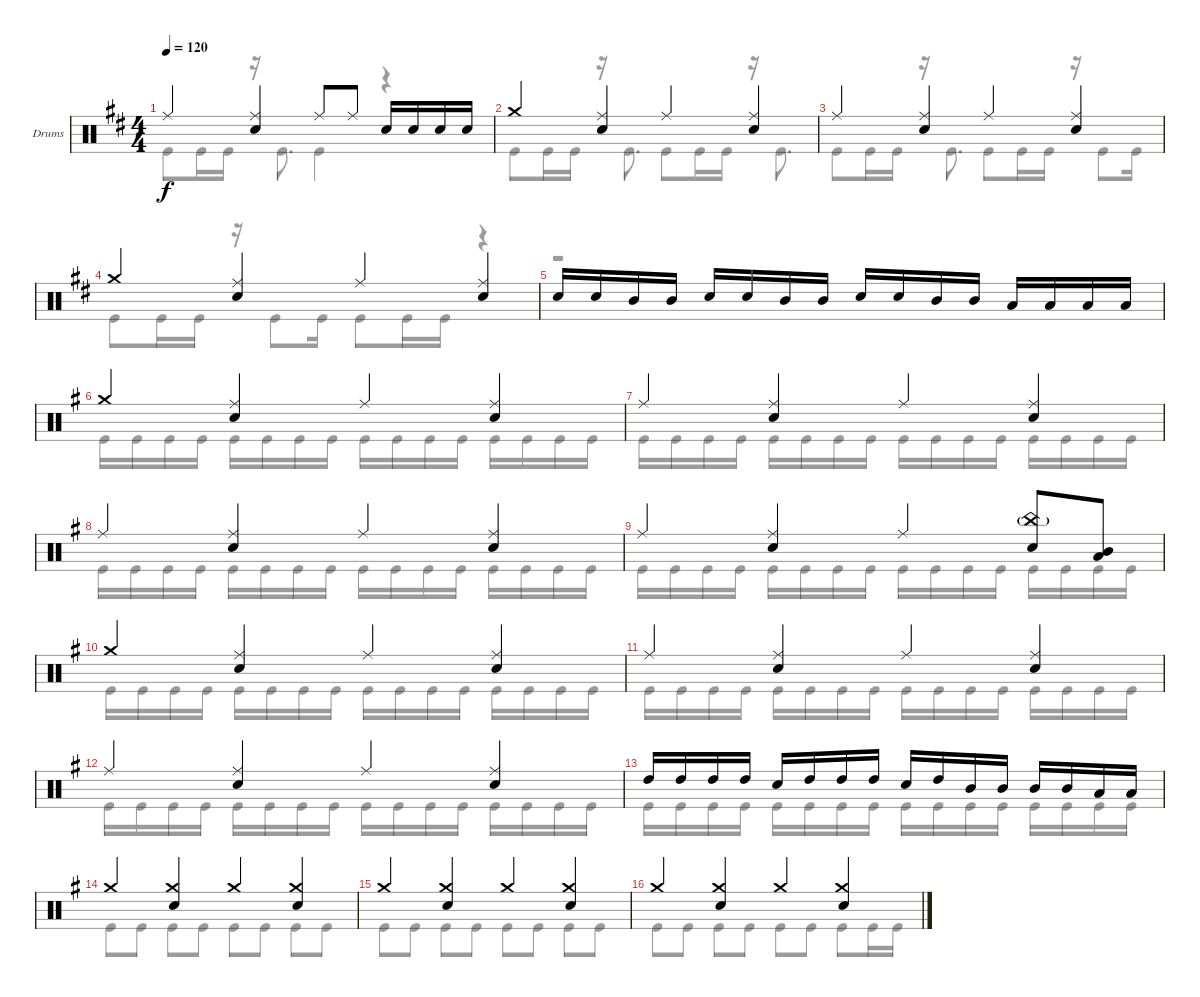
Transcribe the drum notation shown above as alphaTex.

\bracketExtendMode groupsimilarinstruments
\firstSystemTrackNameOrientation horizontal
\otherSystemsTrackNameOrientation horizontal
\track ("Drumkit" "Drums") {mute instrument percussion}
\staff {score}
\articulation defaults
\voice
\ts (4 4)
\tempo 120
\clef neutral
\ks bminor "Ride (middle)".4{dy f}
("Ride (middle)" "Snare (hit) 2").4 "Ride (middle)".8 "Ride (middle)".8 "Snare (hit) 2".16 "Snare (hit) 2".16 "Snare (hit) 2".16 "Snare (hit) 2".16 |
"Crash medium (hit)".4 ("Ride (middle)" "Snare (hit) 2").4 "Ride (middle)".4 ("Ride (middle)" "Snare (hit) 2").4 |
"Ride (middle)".4 ("Ride (middle)" "Snare (hit) 2").4 "Ride (middle)".4 ("Ride (middle)" "Snare (hit) 2").4 |
"Crash medium (hit)".4 ("Ride (middle)" "Snare (hit) 2").4 "Ride (middle)".4 ("Ride (middle)" "Snare (hit) 2").4 |
"Snare (hit) 2".16 "Snare (hit) 2".16 "Mid Tom (hit)".16 "Mid Tom (hit)".16 "Snare (hit) 2".16 "Snare (hit) 2".16 "Mid Tom (hit)".16 "Mid Tom (hit)".16 "Snare (hit) 2".16 "Snare (hit) 2".16 "Mid Tom (hit)".16 "Mid Tom (hit)".16 "Low Tom (hit)".16 "Low Tom (hit)".16 "Low Tom (hit)".16 "Low Tom (hit)".16 |
\ks eminor "Crash medium (hit)".4
("Ride (middle)" "Snare (hit) 2").4 "Ride (middle)".4 ("Ride (middle)" "Snare (hit) 2").4 |
"Ride (middle)".4 ("Ride (middle)" "Snare (hit) 2").4 "Ride (middle)".4 ("Ride (middle)" "Snare (hit) 2").4 |
"Ride (middle)".4 ("Ride (middle)" "Snare (hit) 2").4 "Ride (middle)".4 ("Ride (middle)" "Snare (hit) 2").4 |
"Ride (middle)".4 ("Ride (middle)" "Snare (hit) 2").4 "Ride (middle)".4 ("China (hit)"{g} "Snare (hit) 2").8 ("Mid Tom (hit)" "Low Tom (hit)").8 |
"Crash medium (hit)".4 ("Ride (middle)" "Snare (hit) 2").4 "Ride (middle)".4 ("Ride (middle)" "Snare (hit) 2").4 |
"Ride (middle)".4 ("Ride (middle)" "Snare (hit) 2").4 "Ride (middle)".4 ("Ride (middle)" "Snare (hit) 2").4 |
"Ride (middle)".4 ("Ride (middle)" "Snare (hit) 2").4 "Ride (middle)".4 ("Ride (middle)" "Snare (hit) 2").4 |
"High Tom (hit)".16 "High Tom (hit)".16 "High Tom (hit)".16 "High Tom (hit)".16 "Snare (hit) 2".16 "High Tom (hit)".16 "High Tom (hit)".16 "High Tom (hit)".16 "Snare (hit) 2".16 "High Tom (hit)".16 "Mid Tom (hit)".16 "Mid Tom (hit)".16 "Mid Tom (hit)".16 "Mid Tom (hit)".16 "Low Tom (hit)".16 "Low Tom (hit)".16 |
"Crash medium (hit)".4 ("Crash medium (hit)" "Snare (hit) 2").4 "Crash medium (hit)".4 ("Crash medium (hit)" "Snare (hit) 2").4 |
"Crash medium (hit)".4 ("Crash medium (hit)" "Snare (hit) 2").4 "Crash medium (hit)".4 ("Crash medium (hit)" "Snare (hit) 2").4 |
"Crash medium (hit)".4 ("Crash medium (hit)" "Snare (hit) 2").4 "Crash medium (hit)".4 ("Crash medium (hit)" "Snare (hit) 2").4
\voice
\clef neutral
\ottava regular
\simile none
\ks bminor "Kick (hit)".8{dy f} "Kick (hit)".16 "Kick (hit)".16
r.16 "Kick (hit)".8{d} "Kick (hit)".4 r.4 |
"Kick (hit)".8 "Kick (hit)".16 "Kick (hit)".16 r.16 "Kick (hit)".8{d} "Kick (hit)".8 "Kick (hit)".16 "Kick (hit)".16 r.16 "Kick (hit)".8{d} |
"Kick (hit)".8 "Kick (hit)".16 "Kick (hit)".16 r.16 "Kick (hit)".8{d} "Kick (hit)".8 "Kick (hit)".16 "Kick (hit)".16 r.16 "Kick (hit)".8 "Kick (hit)".16 |
"Kick (hit)".8 "Kick (hit)".16 "Kick (hit)".16 r.16 "Kick (hit)".8 "Kick (hit)".16 "Kick (hit)".8 "Kick (hit)".16 "Kick (hit)".16 r.4 |
r.1 |
\ks eminor "Kick (hit)".16 "Kick (hit)".16 "Kick (hit)".16 "Kick (hit)".16 "Kick (hit)".16 "Kick (hit)".16 "Kick (hit)".16 "Kick (hit)".16 "Kick (hit)".16 "Kick (hit)".16 "Kick (hit)".16 "Kick (hit)".16 "Kick (hit)".16 "Kick (hit)".16 "Kick (hit)".16 "Kick (hit)".16
|
"Kick (hit)".16 "Kick (hit)".16 "Kick (hit)".16 "Kick (hit)".16 "Kick (hit)".16 "Kick (hit)".16 "Kick (hit)".16 "Kick (hit)".16 "Kick (hit)".16 "Kick (hit)".16 "Kick (hit)".16 "Kick (hit)".16 "Kick (hit)".16 "Kick (hit)".16 "Kick (hit)".16 "Kick (hit)".16 |
"Kick (hit)".16 "Kick (hit)".16 "Kick (hit)".16 "Kick (hit)".16 "Kick (hit)".16 "Kick (hit)".16 "Kick (hit)".16 "Kick (hit)".16 "Kick (hit)".16 "Kick (hit)".16 "Kick (hit)".16 "Kick (hit)".16 "Kick (hit)".16 "Kick (hit)".16 "Kick (hit)".16 "Kick (hit)".16 |
"Kick (hit)".16 "Kick (hit)".16 "Kick (hit)".16 "Kick (hit)".16 "Kick (hit)".16 "Kick (hit)".16 "Kick (hit)".16 "Kick (hit)".16 "Kick (hit)".16 "Kick (hit)".16 "Kick (hit)".16 "Kick (hit)".16 "Kick (hit)".16 "Kick (hit)".16 "Kick (hit)".16 "Kick (hit)".16 |
"Kick (hit)".16 "Kick (hit)".16 "Kick (hit)".16 "Kick (hit)".16 "Kick (hit)".16 "Kick (hit)".16 "Kick (hit)".16 "Kick (hit)".16 "Kick (hit)".16 "Kick (hit)".16 "Kick (hit)".16 "Kick (hit)".16 "Kick (hit)".16 "Kick (hit)".16 "Kick (hit)".16 "Kick (hit)".16 |
"Kick (hit)".16 "Kick (hit)".16 "Kick (hit)".16 "Kick (hit)".16 "Kick (hit)".16 "Kick (hit)".16 "Kick (hit)".16 "Kick (hit)".16 "Kick (hit)".16 "Kick (hit)".16 "Kick (hit)".16 "Kick (hit)".16 "Kick (hit)".16 "Kick (hit)".16 "Kick (hit)".16 "Kick (hit)".16 |
"Kick (hit)".16 "Kick (hit)".16 "Kick (hit)".16 "Kick (hit)".16 "Kick (hit)".16 "Kick (hit)".16 "Kick (hit)".16 "Kick (hit)".16 "Kick (hit)".16 "Kick (hit)".16 "Kick (hit)".16 "Kick (hit)".16 "Kick (hit)".16 "Kick (hit)".16 "Kick (hit)".16 "Kick (hit)".16 |
"Kick (hit)".16 "Kick (hit)".16 "Kick (hit)".16 "Kick (hit)".16 "Kick (hit)".16 "Kick (hit)".16 "Kick (hit)".16 "Kick (hit)".16 "Kick (hit)".16 "Kick (hit)".16 "Kick (hit)".16 "Kick (hit)".16 "Kick (hit)".16 "Kick (hit)".16 "Kick (hit)".16 "Kick (hit)".16 |
"Kick (hit)".8 "Kick (hit)".8 "Kick (hit)".8 "Kick (hit)".8 "Kick (hit)".8 "Kick (hit)".8 "Kick (hit)".8 "Kick (hit)".8 |
"Kick (hit)".8 "Kick (hit)".8 "Kick (hit)".8 "Kick (hit)".8 "Kick (hit)".8 "Kick (hit)".8 "Kick (hit)".8 "Kick (hit)".8 |
"Kick (hit)".8 "Kick (hit)".8 "Kick (hit)".8 "Kick (hit)".8 "Kick (hit)".8 "Kick (hit)".8 "Kick (hit)".8 "Kick (hit)".16 "Kick (hit)".16
